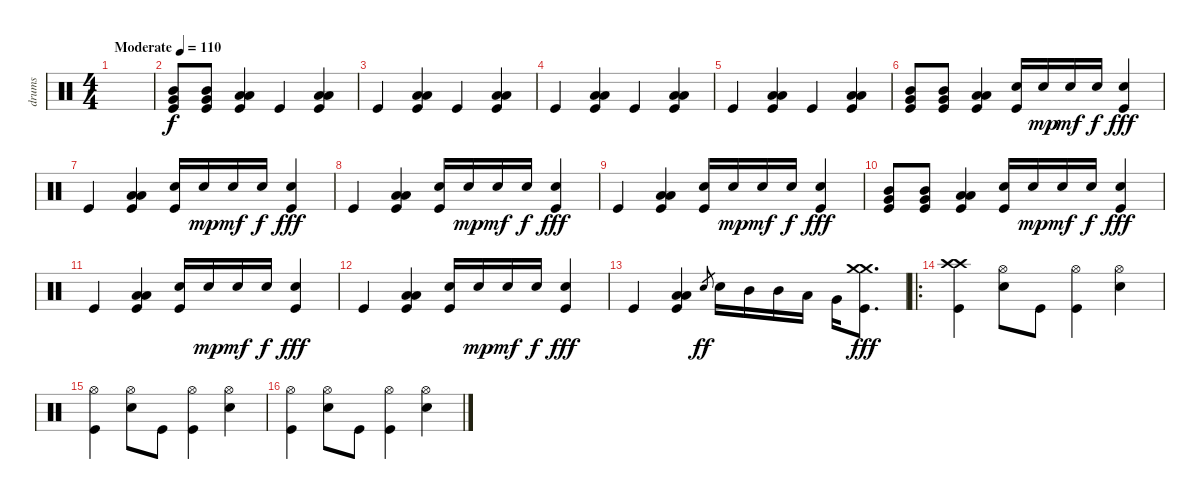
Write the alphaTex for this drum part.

\track ("drums" "drums") {instrument percussion}
\staff {score}
\articulation defaults
\ts (4 4)
\tempo (110 "Moderate")
\clef neutral
\ks c
|
("Mid Tom (hit)" "Very Low Tom (hit)" "Kick (hit)").8 ("Mid Tom (hit)" "Very Low Tom (hit)" "Kick (hit)").8 ("Low Tom (hit)" "Low Floor Tom (hit)" "Kick (hit)").4 "Kick (hit)".4 ("Low Tom (hit)" "Low Floor Tom (hit)" "Kick (hit)").4 |
"Kick (hit)".4 ("Low Tom (hit)" "Low Floor Tom (hit)" "Kick (hit)").4 "Kick (hit)".4 ("Low Tom (hit)" "Low Floor Tom (hit)" "Kick (hit)").4 |
"Kick (hit)".4 ("Low Tom (hit)" "Low Floor Tom (hit)" "Kick (hit)").4 "Kick (hit)".4 ("Low Tom (hit)" "Low Floor Tom (hit)" "Kick (hit)").4 |
"Kick (hit)".4 ("Low Tom (hit)" "Low Floor Tom (hit)" "Kick (hit)").4 "Kick (hit)".4 ("Low Tom (hit)" "Low Floor Tom (hit)" "Kick (hit)").4 |
("Mid Tom (hit)" "Very Low Tom (hit)" "Kick (hit)").8 ("Mid Tom (hit)" "Very Low Tom (hit)" "Kick (hit)").8 ("Low Tom (hit)" "Low Floor Tom (hit)" "Kick (hit)").4 ("Electric Snare (hit)" "Kick (hit)").16 "Electric Snare (hit)".16{dy mp} "Electric Snare (hit)".16{dy mf} "Electric Snare (hit)".16{dy f} ("Electric Snare (hit)" "Kick (hit)").4{dy fff} |
"Kick (hit)".4 ("Low Tom (hit)" "Low Floor Tom (hit)" "Kick (hit)").4 ("Electric Snare (hit)" "Kick (hit)").16 "Electric Snare (hit)".16{dy mp} "Electric Snare (hit)".16{dy mf} "Electric Snare (hit)".16{dy f} ("Electric Snare (hit)" "Kick (hit)").4{dy fff} |
"Kick (hit)".4 ("Low Tom (hit)" "Low Floor Tom (hit)" "Kick (hit)").4 ("Electric Snare (hit)" "Kick (hit)").16 "Electric Snare (hit)".16{dy mp} "Electric Snare (hit)".16{dy mf} "Electric Snare (hit)".16{dy f} ("Electric Snare (hit)" "Kick (hit)").4{dy fff} |
"Kick (hit)".4 ("Low Tom (hit)" "Low Floor Tom (hit)" "Kick (hit)").4 ("Electric Snare (hit)" "Kick (hit)").16 "Electric Snare (hit)".16{dy mp} "Electric Snare (hit)".16{dy mf} "Electric Snare (hit)".16{dy f} ("Electric Snare (hit)" "Kick (hit)").4{dy fff} |
("Mid Tom (hit)" "Very Low Tom (hit)" "Kick (hit)").8 ("Mid Tom (hit)" "Very Low Tom (hit)" "Kick (hit)").8 ("Low Tom (hit)" "Low Floor Tom (hit)" "Kick (hit)").4 ("Electric Snare (hit)" "Kick (hit)").16 "Electric Snare (hit)".16{dy mp} "Electric Snare (hit)".16{dy mf} "Electric Snare (hit)".16{dy f} ("Electric Snare (hit)" "Kick (hit)").4{dy fff} |
"Kick (hit)".4 ("Low Tom (hit)" "Low Floor Tom (hit)" "Kick (hit)").4 ("Electric Snare (hit)" "Kick (hit)").16 "Electric Snare (hit)".16{dy mp} "Electric Snare (hit)".16{dy mf} "Electric Snare (hit)".16{dy f} ("Electric Snare (hit)" "Kick (hit)").4{dy fff} |
"Kick (hit)".4 ("Low Tom (hit)" "Low Floor Tom (hit)" "Kick (hit)").4 ("Electric Snare (hit)" "Kick (hit)").16 "Electric Snare (hit)".16{dy mp} "Electric Snare (hit)".16{dy mf} "Electric Snare (hit)".16{dy f} ("Electric Snare (hit)" "Kick (hit)").4{dy fff} |
"Kick (hit)".4 ("Low Tom (hit)" "Low Floor Tom (hit)" "Kick (hit)").4 "Electric Snare (hit)".8{gr dy ff} "Electric Snare (hit)".16 "Mid Tom (hit)".16 "Mid Tom (hit)".16 "Low Tom (hit)".16 "Very Low Tom (hit)".16 ("Crash medium (hit)" "Crash medium (hit)" "Kick (hit)").8{d dy fff} |
\ro
("Crash high (hit)" "Crash high (hit)" "Kick (hit)").4 ("Electric Snare (hit)" "Hi-Hat (open)").8 "Kick (hit)".8 ("Hi-Hat (open)" "Kick (hit)").4 ("Electric Snare (hit)" "Hi-Hat (open)").4 |
("Hi-Hat (open)" "Kick (hit)").4 ("Electric Snare (hit)" "Hi-Hat (open)").8 "Kick (hit)".8 ("Hi-Hat (open)" "Kick (hit)").4 ("Electric Snare (hit)" "Hi-Hat (open)").4 |
("Hi-Hat (open)" "Kick (hit)").4 ("Electric Snare (hit)" "Hi-Hat (open)").8 "Kick (hit)".8 ("Hi-Hat (open)" "Kick (hit)").4 ("Electric Snare (hit)" "Hi-Hat (open)").4
